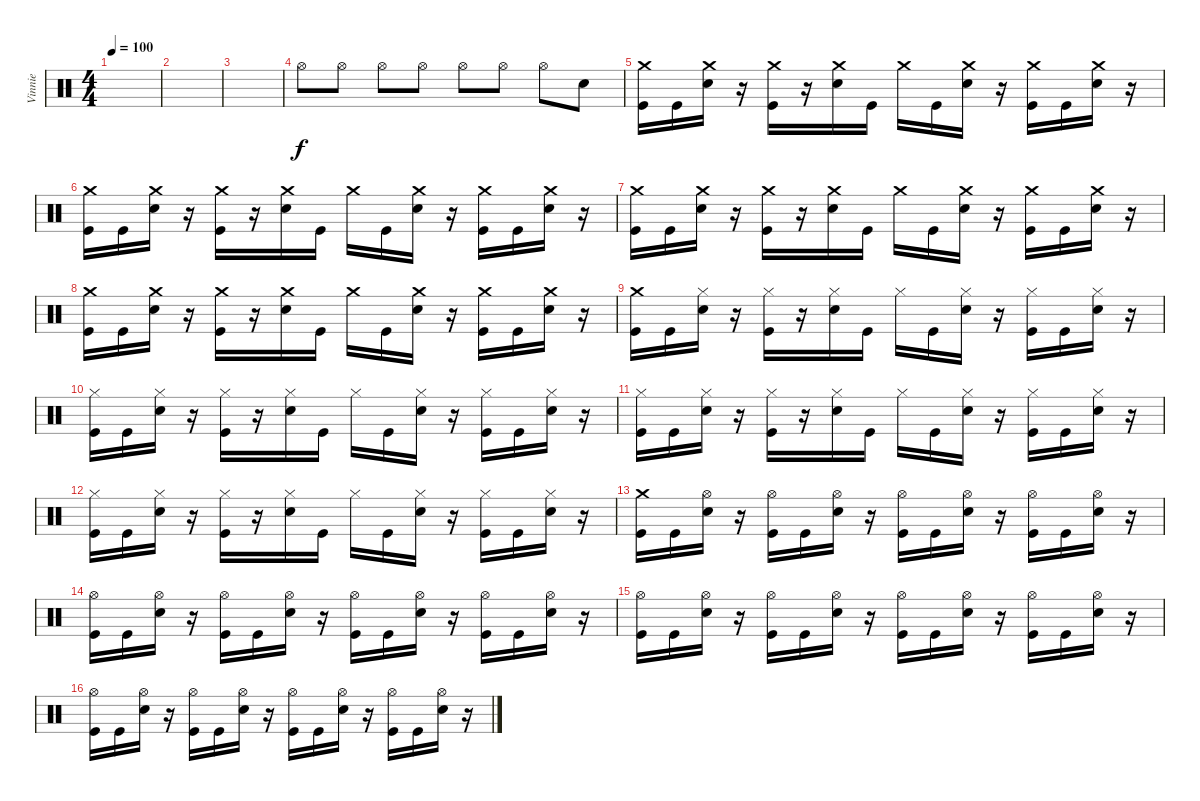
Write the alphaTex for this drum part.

\track ("Vinnie" "Vinnie") {instrument percussion}
\staff {score}
\articulation defaults
\ts (4 4)
\tempo 100
\clef neutral
\ks c
|
|
|
"Hi-Hat (open)".8 "Hi-Hat (open)".8 "Hi-Hat (open)".8 "Hi-Hat (open)".8 "Hi-Hat (open)".8 "Hi-Hat (open)".8 "Hi-Hat (open)".8 "Electric Snare (hit)".8 |
("Crash medium (hit)" "Kick (hit)").16 "Kick (hit)".16 ("Crash medium (hit)" "Electric Snare (hit)").16 r.16 ("Crash medium (hit)" "Kick (hit)").16 r.16 ("Crash medium (hit)" "Electric Snare (hit)").16 "Kick (hit)".16 "Crash medium (hit)".16 "Kick (hit)".16 ("Crash medium (hit)" "Electric Snare (hit)").16 r.16 ("Crash medium (hit)" "Kick (hit)").16 "Kick (hit)".16 ("Crash medium (hit)" "Electric Snare (hit)").16 r.16 |
("Crash medium (hit)" "Kick (hit)").16 "Kick (hit)".16 ("Crash medium (hit)" "Electric Snare (hit)").16 r.16 ("Crash medium (hit)" "Kick (hit)").16 r.16 ("Crash medium (hit)" "Electric Snare (hit)").16 "Kick (hit)".16 "Crash medium (hit)".16 "Kick (hit)".16 ("Crash medium (hit)" "Electric Snare (hit)").16 r.16 ("Crash medium (hit)" "Kick (hit)").16 "Kick (hit)".16 ("Crash medium (hit)" "Electric Snare (hit)").16 r.16 |
("Crash medium (hit)" "Kick (hit)").16 "Kick (hit)".16 ("Crash medium (hit)" "Electric Snare (hit)").16 r.16 ("Crash medium (hit)" "Kick (hit)").16 r.16 ("Crash medium (hit)" "Electric Snare (hit)").16 "Kick (hit)".16 "Crash medium (hit)".16 "Kick (hit)".16 ("Crash medium (hit)" "Electric Snare (hit)").16 r.16 ("Crash medium (hit)" "Kick (hit)").16 "Kick (hit)".16 ("Crash medium (hit)" "Electric Snare (hit)").16 r.16 |
("Crash medium (hit)" "Kick (hit)").16 "Kick (hit)".16 ("Crash medium (hit)" "Electric Snare (hit)").16 r.16 ("Crash medium (hit)" "Kick (hit)").16 r.16 ("Crash medium (hit)" "Electric Snare (hit)").16 "Kick (hit)".16 "Crash medium (hit)".16 "Kick (hit)".16 ("Crash medium (hit)" "Electric Snare (hit)").16 r.16 ("Crash medium (hit)" "Kick (hit)").16 "Kick (hit)".16 ("Crash medium (hit)" "Electric Snare (hit)").16 r.16 |
("Crash medium (hit)" "Kick (hit)").16 "Kick (hit)".16 ("Hi-Hat (closed)" "Electric Snare (hit)").16 r.16 ("Hi-Hat (closed)" "Kick (hit)").16 r.16 ("Hi-Hat (closed)" "Electric Snare (hit)").16 "Kick (hit)".16 "Hi-Hat (closed)".16 "Kick (hit)".16 ("Hi-Hat (closed)" "Electric Snare (hit)").16 r.16 ("Hi-Hat (closed)" "Kick (hit)").16 "Kick (hit)".16 ("Hi-Hat (closed)" "Electric Snare (hit)").16 r.16 |
("Hi-Hat (closed)" "Kick (hit)").16 "Kick (hit)".16 ("Hi-Hat (closed)" "Electric Snare (hit)").16 r.16 ("Hi-Hat (closed)" "Kick (hit)").16 r.16 ("Hi-Hat (closed)" "Electric Snare (hit)").16 "Kick (hit)".16 "Hi-Hat (closed)".16 "Kick (hit)".16 ("Hi-Hat (closed)" "Electric Snare (hit)").16 r.16 ("Hi-Hat (closed)" "Kick (hit)").16 "Kick (hit)".16 ("Hi-Hat (closed)" "Electric Snare (hit)").16 r.16 |
("Hi-Hat (closed)" "Kick (hit)").16 "Kick (hit)".16 ("Hi-Hat (closed)" "Electric Snare (hit)").16 r.16 ("Hi-Hat (closed)" "Kick (hit)").16 r.16 ("Hi-Hat (closed)" "Electric Snare (hit)").16 "Kick (hit)".16 "Hi-Hat (closed)".16 "Kick (hit)".16 ("Hi-Hat (closed)" "Electric Snare (hit)").16 r.16 ("Hi-Hat (closed)" "Kick (hit)").16 "Kick (hit)".16 ("Hi-Hat (closed)" "Electric Snare (hit)").16 r.16 |
("Hi-Hat (closed)" "Kick (hit)").16 "Kick (hit)".16 ("Hi-Hat (closed)" "Electric Snare (hit)").16 r.16 ("Hi-Hat (closed)" "Kick (hit)").16 r.16 ("Hi-Hat (closed)" "Electric Snare (hit)").16 "Kick (hit)".16 "Hi-Hat (closed)".16 "Kick (hit)".16 ("Hi-Hat (closed)" "Electric Snare (hit)").16 r.16 ("Hi-Hat (closed)" "Kick (hit)").16 "Kick (hit)".16 ("Hi-Hat (closed)" "Electric Snare (hit)").16 r.16 |
("Crash medium (hit)" "Kick (hit)").16 "Kick (hit)".16 ("Hi-Hat (open)" "Electric Snare (hit)").16 r.16 ("Hi-Hat (open)" "Kick (hit)").16 "Kick (hit)".16 ("Hi-Hat (open)" "Electric Snare (hit)").16 r.16 ("Hi-Hat (open)" "Kick (hit)").16 "Kick (hit)".16 ("Hi-Hat (open)" "Electric Snare (hit)").16 r.16 ("Hi-Hat (open)" "Kick (hit)").16 "Kick (hit)".16 ("Hi-Hat (open)" "Electric Snare (hit)").16 r.16 |
("Hi-Hat (open)" "Kick (hit)").16 "Kick (hit)".16 ("Hi-Hat (open)" "Electric Snare (hit)").16 r.16 ("Hi-Hat (open)" "Kick (hit)").16 "Kick (hit)".16 ("Hi-Hat (open)" "Electric Snare (hit)").16 r.16 ("Hi-Hat (open)" "Kick (hit)").16 "Kick (hit)".16 ("Hi-Hat (open)" "Electric Snare (hit)").16 r.16 ("Hi-Hat (open)" "Kick (hit)").16 "Kick (hit)".16 ("Hi-Hat (open)" "Electric Snare (hit)").16 r.16 |
("Hi-Hat (open)" "Kick (hit)").16 "Kick (hit)".16 ("Hi-Hat (open)" "Electric Snare (hit)").16 r.16 ("Hi-Hat (open)" "Kick (hit)").16 "Kick (hit)".16 ("Hi-Hat (open)" "Electric Snare (hit)").16 r.16 ("Hi-Hat (open)" "Kick (hit)").16 "Kick (hit)".16 ("Hi-Hat (open)" "Electric Snare (hit)").16 r.16 ("Hi-Hat (open)" "Kick (hit)").16 "Kick (hit)".16 ("Hi-Hat (open)" "Electric Snare (hit)").16 r.16 |
("Hi-Hat (open)" "Kick (hit)").16 "Kick (hit)".16 ("Hi-Hat (open)" "Electric Snare (hit)").16 r.16 ("Hi-Hat (open)" "Kick (hit)").16 "Kick (hit)".16 ("Hi-Hat (open)" "Electric Snare (hit)").16 r.16 ("Hi-Hat (open)" "Kick (hit)").16 "Kick (hit)".16 ("Hi-Hat (open)" "Electric Snare (hit)").16 r.16 ("Hi-Hat (open)" "Kick (hit)").16 "Kick (hit)".16 ("Hi-Hat (open)" "Electric Snare (hit)").16 r.16
